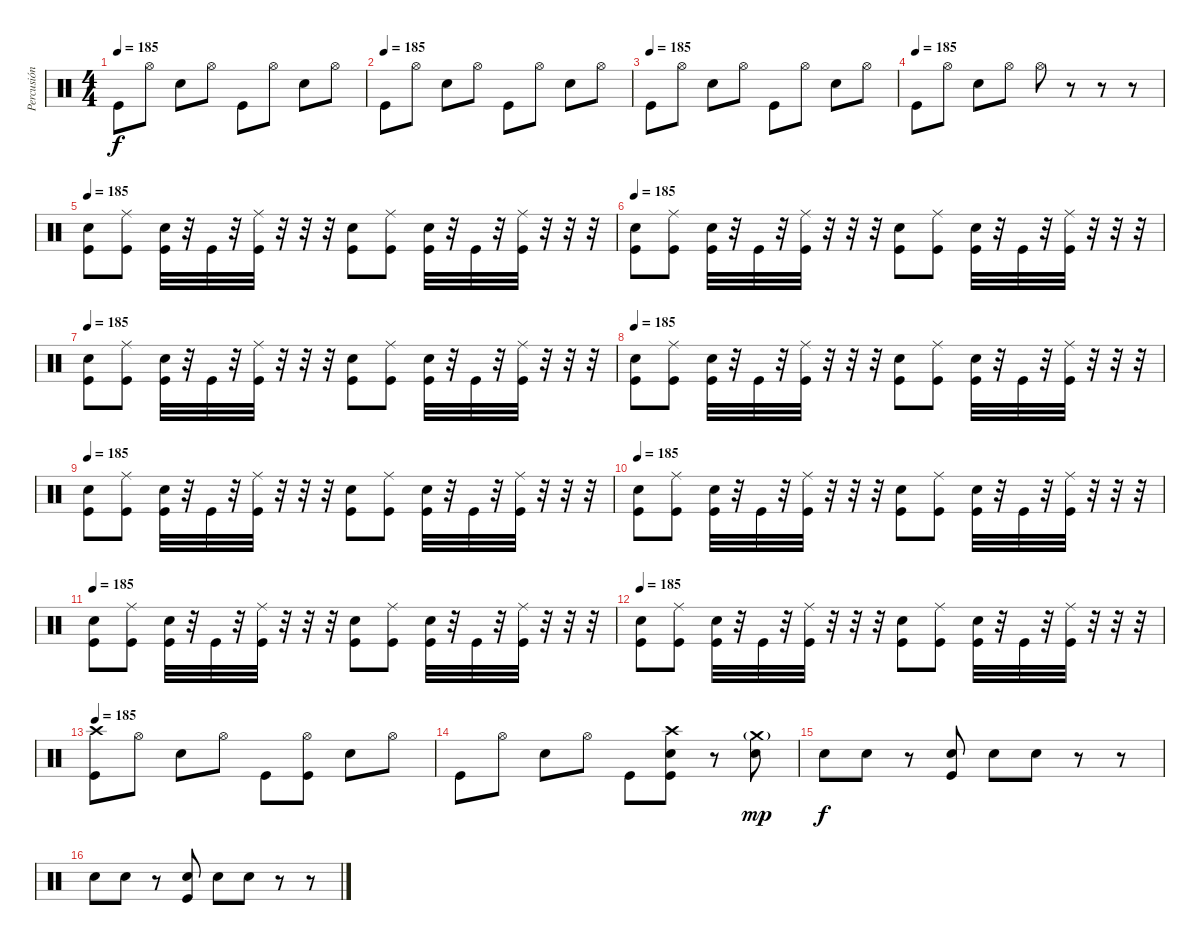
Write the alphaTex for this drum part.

\track ("Percusión" "Percusión") {instrument percussion}
\staff {score}
\articulation defaults
\ts (4 4)
\tempo 185
\clef neutral
\ks c "Kick (hit)".8{dy f} "Hi-Hat (open)".8 "Electric Snare (hit)".8 "Hi-Hat (open)".8 "Kick (hit)".8 "Hi-Hat (open)".8 "Electric Snare (hit)".8 "Hi-Hat (open)".8
|
\tempo (185)
"Kick (hit)".8 "Hi-Hat (open)".8 "Electric Snare (hit)".8 "Hi-Hat (open)".8 "Kick (hit)".8 "Hi-Hat (open)".8 "Electric Snare (hit)".8 "Hi-Hat (open)".8 |
\tempo (185)
"Kick (hit)".8 "Hi-Hat (open)".8 "Electric Snare (hit)".8 "Hi-Hat (open)".8 "Kick (hit)".8 "Hi-Hat (open)".8 "Electric Snare (hit)".8 "Hi-Hat (open)".8 |
\tempo (185)
"Kick (hit)".8 "Hi-Hat (open)".8 "Electric Snare (hit)".8 "Hi-Hat (open)".8 "Hi-Hat (open)".8 r.8 r.8 r.8 |
\tempo 185
("Electric Snare (hit)" "Kick (hit)").8 ("Ride (middle)" "Kick (hit)").8 ("Electric Snare (hit)" "Kick (hit)").32 r.32 "Kick (hit)".32 r.32 ("Ride (middle)" "Kick (hit)").32 r.32 r.32 r.32 ("Electric Snare (hit)" "Kick (hit)").8 ("Ride (middle)" "Kick (hit)").8 ("Electric Snare (hit)" "Kick (hit)").32 r.32 "Kick (hit)".32 r.32 ("Ride (middle)" "Kick (hit)").32 r.32 r.32 r.32 |
\tempo 185
("Electric Snare (hit)" "Kick (hit)").8 ("Ride (middle)" "Kick (hit)").8 ("Electric Snare (hit)" "Kick (hit)").32 r.32 "Kick (hit)".32 r.32 ("Ride (middle)" "Kick (hit)").32 r.32 r.32 r.32 ("Electric Snare (hit)" "Kick (hit)").8 ("Ride (middle)" "Kick (hit)").8 ("Electric Snare (hit)" "Kick (hit)").32 r.32 "Kick (hit)".32 r.32 ("Ride (middle)" "Kick (hit)").32 r.32 r.32 r.32 |
\tempo 185
("Electric Snare (hit)" "Kick (hit)").8 ("Ride (middle)" "Kick (hit)").8 ("Electric Snare (hit)" "Kick (hit)").32 r.32 "Kick (hit)".32 r.32 ("Ride (middle)" "Kick (hit)").32 r.32 r.32 r.32 ("Electric Snare (hit)" "Kick (hit)").8 ("Ride (middle)" "Kick (hit)").8 ("Electric Snare (hit)" "Kick (hit)").32 r.32 "Kick (hit)".32 r.32 ("Ride (middle)" "Kick (hit)").32 r.32 r.32 r.32 |
\tempo 185
("Electric Snare (hit)" "Kick (hit)").8 ("Ride (middle)" "Kick (hit)").8 ("Electric Snare (hit)" "Kick (hit)").32 r.32 "Kick (hit)".32 r.32 ("Ride (middle)" "Kick (hit)").32 r.32 r.32 r.32 ("Electric Snare (hit)" "Kick (hit)").8 ("Ride (middle)" "Kick (hit)").8 ("Electric Snare (hit)" "Kick (hit)").32 r.32 "Kick (hit)".32 r.32 ("Ride (middle)" "Kick (hit)").32 r.32 r.32 r.32 |
\tempo 185
("Electric Snare (hit)" "Kick (hit)").8 ("Ride (middle)" "Kick (hit)").8 ("Electric Snare (hit)" "Kick (hit)").32 r.32 "Kick (hit)".32 r.32 ("Ride (middle)" "Kick (hit)").32 r.32 r.32 r.32 ("Electric Snare (hit)" "Kick (hit)").8 ("Ride (middle)" "Kick (hit)").8 ("Electric Snare (hit)" "Kick (hit)").32 r.32 "Kick (hit)".32 r.32 ("Ride (middle)" "Kick (hit)").32 r.32 r.32 r.32 |
\tempo 185
("Electric Snare (hit)" "Kick (hit)").8 ("Ride (middle)" "Kick (hit)").8 ("Electric Snare (hit)" "Kick (hit)").32 r.32 "Kick (hit)".32 r.32 ("Ride (middle)" "Kick (hit)").32 r.32 r.32 r.32 ("Electric Snare (hit)" "Kick (hit)").8 ("Ride (middle)" "Kick (hit)").8 ("Electric Snare (hit)" "Kick (hit)").32 r.32 "Kick (hit)".32 r.32 ("Ride (middle)" "Kick (hit)").32 r.32 r.32 r.32 |
\tempo 185
("Electric Snare (hit)" "Kick (hit)").8 ("Ride (middle)" "Kick (hit)").8 ("Electric Snare (hit)" "Kick (hit)").32 r.32 "Kick (hit)".32 r.32 ("Ride (middle)" "Kick (hit)").32 r.32 r.32 r.32 ("Electric Snare (hit)" "Kick (hit)").8 ("Ride (middle)" "Kick (hit)").8 ("Electric Snare (hit)" "Kick (hit)").32 r.32 "Kick (hit)".32 r.32 ("Ride (middle)" "Kick (hit)").32 r.32 r.32 r.32 |
\tempo 185
("Electric Snare (hit)" "Kick (hit)").8 ("Ride (middle)" "Kick (hit)").8 ("Electric Snare (hit)" "Kick (hit)").32 r.32 "Kick (hit)".32 r.32 ("Ride (middle)" "Kick (hit)").32 r.32 r.32 r.32 ("Electric Snare (hit)" "Kick (hit)").8 ("Ride (middle)" "Kick (hit)").8 ("Electric Snare (hit)" "Kick (hit)").32 r.32 "Kick (hit)".32 r.32 ("Ride (middle)" "Kick (hit)").32 r.32 r.32 r.32 |
\tempo 185
("Crash high (hit)" "Kick (hit)").8 "Hi-Hat (open)".8 "Electric Snare (hit)".8 "Hi-Hat (open)".8 "Kick (hit)".8 ("Hi-Hat (open)" "Kick (hit)").8 "Electric Snare (hit)".8 "Hi-Hat (open)".8 |
"Kick (hit)".8 "Hi-Hat (open)".8 "Electric Snare (hit)".8 "Hi-Hat (open)".8 "Kick (hit)".8 ("Crash high (hit)" "Electric Snare (hit)" "Kick (hit)").8 r.8 ("Crash medium (hit)"{g} "Electric Snare (hit)").8{dy mp} |
"Electric Snare (hit)".8{dy f} "Electric Snare (hit)".8 r.8 ("Electric Snare (hit)" "Kick (hit)").8 "Electric Snare (hit)".8 "Electric Snare (hit)".8 r.8 r.8 |
"Electric Snare (hit)".8 "Electric Snare (hit)".8 r.8 ("Electric Snare (hit)" "Kick (hit)").8 "Electric Snare (hit)".8 "Electric Snare (hit)".8 r.8 r.8
